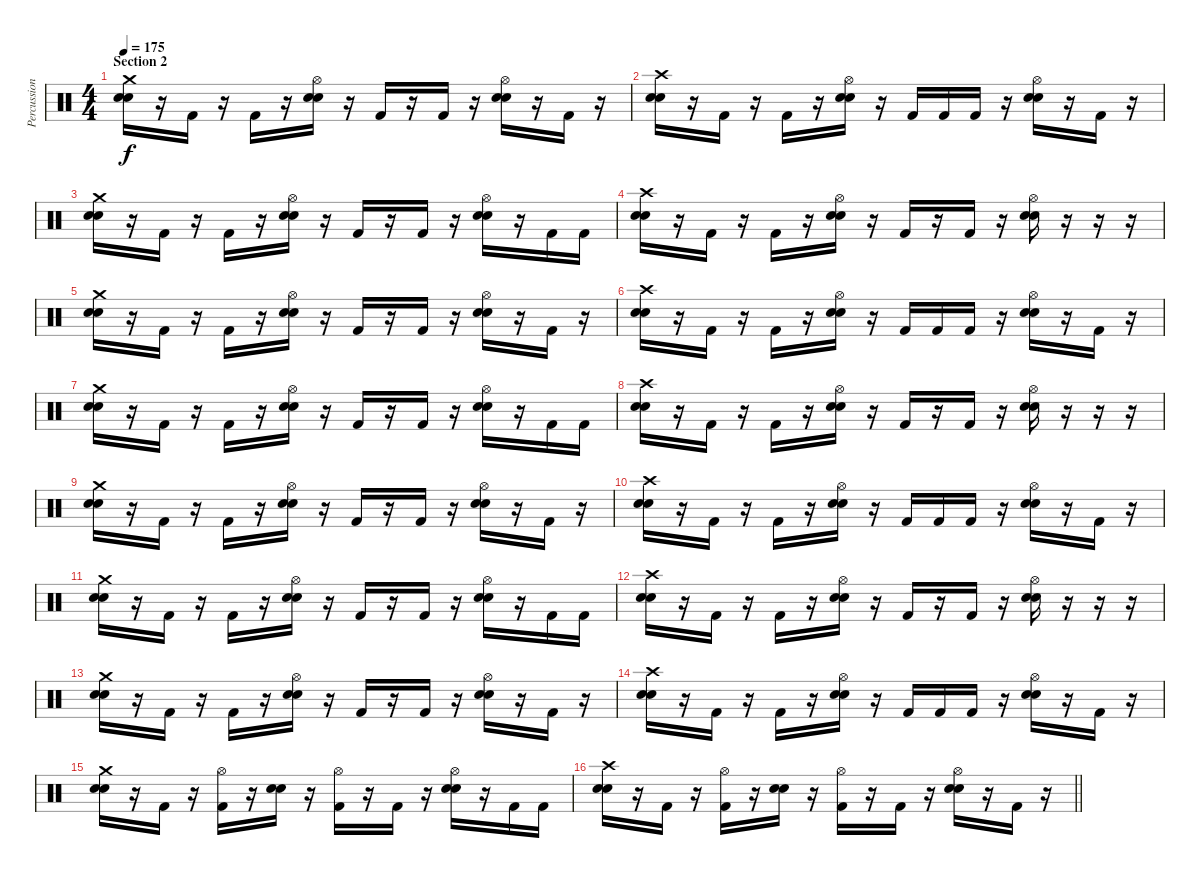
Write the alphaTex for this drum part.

\track ("Percussion" "Percussion") {instrument percussion}
\staff {score}
\articulation defaults
\ts (4 4)
\section ("" "Section 2")
\tempo 175
\clef neutral
\ks c
("Crash medium (hit)" "Electric Snare (hit)" "Electric Snare (hit)").16{dy f} r.16 "Kick (hit) 2".16 r.16 "Kick (hit) 2".16 r.16 ("Hi-Hat (open)" "Electric Snare (hit)" "Electric Snare (hit)").16 r.16 "Kick (hit) 2".16 r.16 "Kick (hit) 2".16 r.16 ("Hi-Hat (open)" "Electric Snare (hit)" "Electric Snare (hit)").16 r.16 "Kick (hit) 2".16 r.16 |
("Crash high (hit)" "Electric Snare (hit)" "Electric Snare (hit)").16 r.16 "Kick (hit) 2".16 r.16 "Kick (hit) 2".16 r.16 ("Hi-Hat (open)" "Electric Snare (hit)" "Electric Snare (hit)").16 r.16 "Kick (hit) 2".16 "Kick (hit) 2".16 "Kick (hit) 2".16 r.16 ("Hi-Hat (open)" "Electric Snare (hit)" "Electric Snare (hit)").16 r.16 "Kick (hit) 2".16 r.16 |
("Crash medium (hit)" "Electric Snare (hit)" "Electric Snare (hit)").16 r.16 "Kick (hit) 2".16 r.16 "Kick (hit) 2".16 r.16 ("Hi-Hat (open)" "Electric Snare (hit)" "Electric Snare (hit)").16 r.16 "Kick (hit) 2".16 r.16 "Kick (hit) 2".16 r.16 ("Hi-Hat (open)" "Electric Snare (hit)" "Electric Snare (hit)").16 r.16 "Kick (hit) 2".16 "Kick (hit) 2".16 |
("Crash high (hit)" "Electric Snare (hit)" "Electric Snare (hit)").16 r.16 "Kick (hit) 2".16 r.16 "Kick (hit) 2".16 r.16 ("Hi-Hat (open)" "Electric Snare (hit)" "Electric Snare (hit)").16 r.16 "Kick (hit) 2".16 r.16 "Kick (hit) 2".16 r.16 ("Hi-Hat (open)" "Electric Snare (hit)" "Electric Snare (hit)").16 r.16 r.16 r.16 |
("Crash medium (hit)" "Electric Snare (hit)" "Electric Snare (hit)").16 r.16 "Kick (hit) 2".16 r.16 "Kick (hit) 2".16 r.16 ("Hi-Hat (open)" "Electric Snare (hit)" "Electric Snare (hit)").16 r.16 "Kick (hit) 2".16 r.16 "Kick (hit) 2".16 r.16 ("Hi-Hat (open)" "Electric Snare (hit)" "Electric Snare (hit)").16 r.16 "Kick (hit) 2".16 r.16 |
("Crash high (hit)" "Electric Snare (hit)" "Electric Snare (hit)").16 r.16 "Kick (hit) 2".16 r.16 "Kick (hit) 2".16 r.16 ("Hi-Hat (open)" "Electric Snare (hit)" "Electric Snare (hit)").16 r.16 "Kick (hit) 2".16 "Kick (hit) 2".16 "Kick (hit) 2".16 r.16 ("Hi-Hat (open)" "Electric Snare (hit)" "Electric Snare (hit)").16 r.16 "Kick (hit) 2".16 r.16 |
("Crash medium (hit)" "Electric Snare (hit)" "Electric Snare (hit)").16 r.16 "Kick (hit) 2".16 r.16 "Kick (hit) 2".16 r.16 ("Hi-Hat (open)" "Electric Snare (hit)" "Electric Snare (hit)").16 r.16 "Kick (hit) 2".16 r.16 "Kick (hit) 2".16 r.16 ("Hi-Hat (open)" "Electric Snare (hit)" "Electric Snare (hit)").16 r.16 "Kick (hit) 2".16 "Kick (hit) 2".16 |
("Crash high (hit)" "Electric Snare (hit)" "Electric Snare (hit)").16 r.16 "Kick (hit) 2".16 r.16 "Kick (hit) 2".16 r.16 ("Hi-Hat (open)" "Electric Snare (hit)" "Electric Snare (hit)").16 r.16 "Kick (hit) 2".16 r.16 "Kick (hit) 2".16 r.16 ("Hi-Hat (open)" "Electric Snare (hit)" "Electric Snare (hit)").16 r.16 r.16 r.16 |
("Crash medium (hit)" "Electric Snare (hit)" "Electric Snare (hit)").16 r.16 "Kick (hit) 2".16 r.16 "Kick (hit) 2".16 r.16 ("Hi-Hat (open)" "Electric Snare (hit)" "Electric Snare (hit)").16 r.16 "Kick (hit) 2".16 r.16 "Kick (hit) 2".16 r.16 ("Hi-Hat (open)" "Electric Snare (hit)" "Electric Snare (hit)").16 r.16 "Kick (hit) 2".16 r.16 |
("Crash high (hit)" "Electric Snare (hit)" "Electric Snare (hit)").16 r.16 "Kick (hit) 2".16 r.16 "Kick (hit) 2".16 r.16 ("Hi-Hat (open)" "Electric Snare (hit)" "Electric Snare (hit)").16 r.16 "Kick (hit) 2".16 "Kick (hit) 2".16 "Kick (hit) 2".16 r.16 ("Hi-Hat (open)" "Electric Snare (hit)" "Electric Snare (hit)").16 r.16 "Kick (hit) 2".16 r.16 |
("Crash medium (hit)" "Electric Snare (hit)" "Electric Snare (hit)").16 r.16 "Kick (hit) 2".16 r.16 "Kick (hit) 2".16 r.16 ("Hi-Hat (open)" "Electric Snare (hit)" "Electric Snare (hit)").16 r.16 "Kick (hit) 2".16 r.16 "Kick (hit) 2".16 r.16 ("Hi-Hat (open)" "Electric Snare (hit)" "Electric Snare (hit)").16 r.16 "Kick (hit) 2".16 "Kick (hit) 2".16 |
("Crash high (hit)" "Electric Snare (hit)" "Electric Snare (hit)").16 r.16 "Kick (hit) 2".16 r.16 "Kick (hit) 2".16 r.16 ("Hi-Hat (open)" "Electric Snare (hit)" "Electric Snare (hit)").16 r.16 "Kick (hit) 2".16 r.16 "Kick (hit) 2".16 r.16 ("Hi-Hat (open)" "Electric Snare (hit)" "Electric Snare (hit)").16 r.16 r.16 r.16 |
("Crash medium (hit)" "Electric Snare (hit)" "Electric Snare (hit)").16 r.16 "Kick (hit) 2".16 r.16 "Kick (hit) 2".16 r.16 ("Hi-Hat (open)" "Electric Snare (hit)" "Electric Snare (hit)").16 r.16 "Kick (hit) 2".16 r.16 "Kick (hit) 2".16 r.16 ("Hi-Hat (open)" "Electric Snare (hit)" "Electric Snare (hit)").16 r.16 "Kick (hit) 2".16 r.16 |
("Crash high (hit)" "Electric Snare (hit)" "Electric Snare (hit)").16 r.16 "Kick (hit) 2".16 r.16 "Kick (hit) 2".16 r.16 ("Hi-Hat (open)" "Electric Snare (hit)" "Electric Snare (hit)").16 r.16 "Kick (hit) 2".16 "Kick (hit) 2".16 "Kick (hit) 2".16 r.16 ("Hi-Hat (open)" "Electric Snare (hit)" "Electric Snare (hit)").16 r.16 "Kick (hit) 2".16 r.16 |
("Crash medium (hit)" "Electric Snare (hit)" "Electric Snare (hit)").16 r.16 "Kick (hit) 2".16 r.16 ("Hi-Hat (open)" "Kick (hit) 2").16 r.16 ("Electric Snare (hit)" "Electric Snare (hit)").16 r.16 ("Hi-Hat (open)" "Kick (hit) 2").16 r.16 "Kick (hit) 2".16 r.16 ("Hi-Hat (open)" "Electric Snare (hit)" "Electric Snare (hit)").16 r.16 "Kick (hit) 2".16 "Kick (hit) 2".16 |
\barLineRight lightlight
("Crash high (hit)" "Electric Snare (hit)" "Electric Snare (hit)").16 r.16 "Kick (hit) 2".16 r.16 ("Hi-Hat (open)" "Kick (hit) 2").16 r.16 ("Electric Snare (hit)" "Electric Snare (hit)").16 r.16 ("Hi-Hat (open)" "Kick (hit) 2").16 r.16 "Kick (hit) 2".16 r.16 ("Hi-Hat (open)" "Electric Snare (hit)" "Electric Snare (hit)").16 r.16 "Kick (hit) 2".16 r.16
